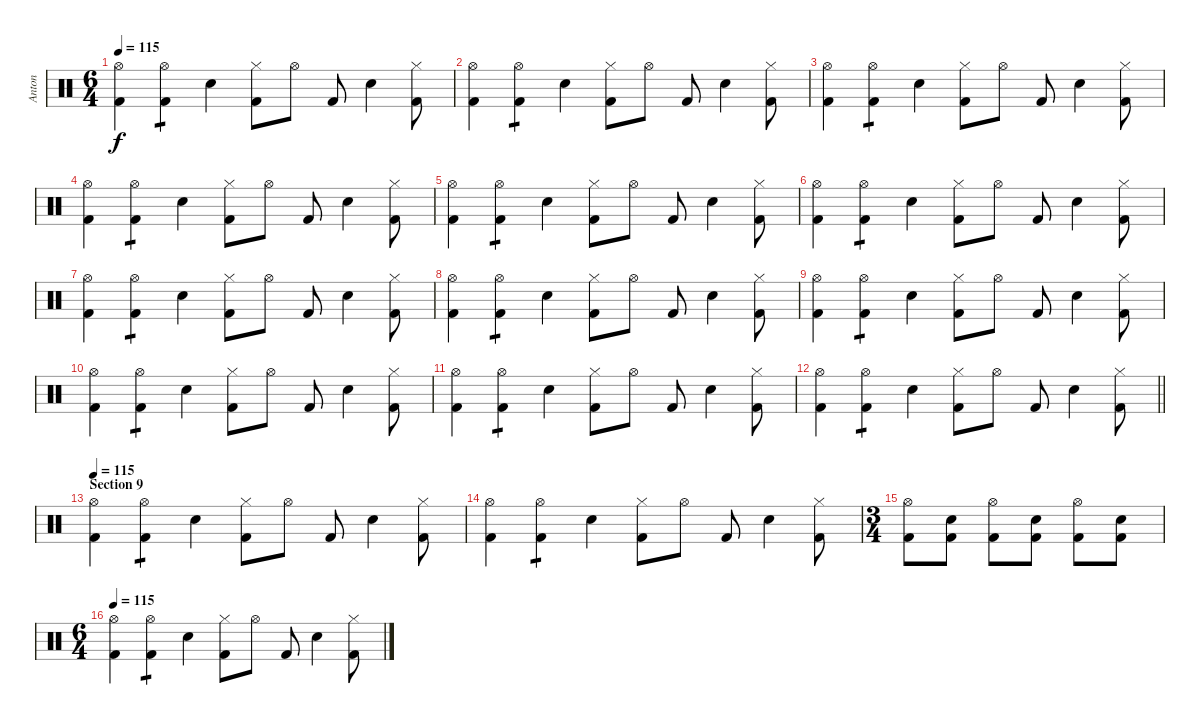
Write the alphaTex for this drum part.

\track ("Anton" "Anton") {instrument percussion}
\staff {score}
\articulation defaults
\ts (6 4)
\tempo 115
\clef neutral
\ks c
("Hi-Hat (open)" "Kick (hit) 2").4{dy f} ("Hi-Hat (open)" "Kick (hit) 2").4{tp 1} "Electric Snare (hit)".4 ("Hi-Hat (closed)" "Kick (hit) 2").8 "Hi-Hat (open)".8 "Kick (hit) 2".8 "Electric Snare (hit)".4 ("Hi-Hat (closed)" "Kick (hit) 2").8 |
("Hi-Hat (open)" "Kick (hit) 2").4 ("Hi-Hat (open)" "Kick (hit) 2").4{tp 1} "Electric Snare (hit)".4 ("Hi-Hat (closed)" "Kick (hit) 2").8 "Hi-Hat (open)".8 "Kick (hit) 2".8 "Electric Snare (hit)".4 ("Hi-Hat (closed)" "Kick (hit) 2").8 |
("Hi-Hat (open)" "Kick (hit) 2").4 ("Hi-Hat (open)" "Kick (hit) 2").4{tp 1} "Electric Snare (hit)".4 ("Hi-Hat (closed)" "Kick (hit) 2").8 "Hi-Hat (open)".8 "Kick (hit) 2".8 "Electric Snare (hit)".4 ("Hi-Hat (closed)" "Kick (hit) 2").8 |
("Hi-Hat (open)" "Kick (hit) 2").4 ("Hi-Hat (open)" "Kick (hit) 2").4{tp 1} "Electric Snare (hit)".4 ("Hi-Hat (closed)" "Kick (hit) 2").8 "Hi-Hat (open)".8 "Kick (hit) 2".8 "Electric Snare (hit)".4 ("Hi-Hat (closed)" "Kick (hit) 2").8 |
("Hi-Hat (open)" "Kick (hit) 2").4 ("Hi-Hat (open)" "Kick (hit) 2").4{tp 1} "Electric Snare (hit)".4 ("Hi-Hat (closed)" "Kick (hit) 2").8 "Hi-Hat (open)".8 "Kick (hit) 2".8 "Electric Snare (hit)".4 ("Hi-Hat (closed)" "Kick (hit) 2").8 |
("Hi-Hat (open)" "Kick (hit) 2").4 ("Hi-Hat (open)" "Kick (hit) 2").4{tp 1} "Electric Snare (hit)".4 ("Hi-Hat (closed)" "Kick (hit) 2").8 "Hi-Hat (open)".8 "Kick (hit) 2".8 "Electric Snare (hit)".4 ("Hi-Hat (closed)" "Kick (hit) 2").8 |
("Hi-Hat (open)" "Kick (hit) 2").4 ("Hi-Hat (open)" "Kick (hit) 2").4{tp 1} "Electric Snare (hit)".4 ("Hi-Hat (closed)" "Kick (hit) 2").8 "Hi-Hat (open)".8 "Kick (hit) 2".8 "Electric Snare (hit)".4 ("Hi-Hat (closed)" "Kick (hit) 2").8 |
("Hi-Hat (open)" "Kick (hit) 2").4 ("Hi-Hat (open)" "Kick (hit) 2").4{tp 1} "Electric Snare (hit)".4 ("Hi-Hat (closed)" "Kick (hit) 2").8 "Hi-Hat (open)".8 "Kick (hit) 2".8 "Electric Snare (hit)".4 ("Hi-Hat (closed)" "Kick (hit) 2").8 |
("Hi-Hat (open)" "Kick (hit) 2").4 ("Hi-Hat (open)" "Kick (hit) 2").4{tp 1} "Electric Snare (hit)".4 ("Hi-Hat (closed)" "Kick (hit) 2").8 "Hi-Hat (open)".8 "Kick (hit) 2".8 "Electric Snare (hit)".4 ("Hi-Hat (closed)" "Kick (hit) 2").8 |
("Hi-Hat (open)" "Kick (hit) 2").4 ("Hi-Hat (open)" "Kick (hit) 2").4{tp 1} "Electric Snare (hit)".4 ("Hi-Hat (closed)" "Kick (hit) 2").8 "Hi-Hat (open)".8 "Kick (hit) 2".8 "Electric Snare (hit)".4 ("Hi-Hat (closed)" "Kick (hit) 2").8 |
("Hi-Hat (open)" "Kick (hit) 2").4 ("Hi-Hat (open)" "Kick (hit) 2").4{tp 1} "Electric Snare (hit)".4 ("Hi-Hat (closed)" "Kick (hit) 2").8 "Hi-Hat (open)".8 "Kick (hit) 2".8 "Electric Snare (hit)".4 ("Hi-Hat (closed)" "Kick (hit) 2").8 |
\barLineRight lightlight
("Hi-Hat (open)" "Kick (hit) 2").4 ("Hi-Hat (open)" "Kick (hit) 2").4{tp 1} "Electric Snare (hit)".4 ("Hi-Hat (closed)" "Kick (hit) 2").8 "Hi-Hat (open)".8 "Kick (hit) 2".8 "Electric Snare (hit)".4 ("Hi-Hat (closed)" "Kick (hit) 2").8 |
\section ("" "Section 9")
\tempo 115
("Hi-Hat (open)" "Kick (hit) 2").4 ("Hi-Hat (open)" "Kick (hit) 2").4{tp 1} "Electric Snare (hit)".4 ("Hi-Hat (closed)" "Kick (hit) 2").8 "Hi-Hat (open)".8 "Kick (hit) 2".8 "Electric Snare (hit)".4 ("Hi-Hat (closed)" "Kick (hit) 2").8 |
("Hi-Hat (open)" "Kick (hit) 2").4 ("Hi-Hat (open)" "Kick (hit) 2").4{tp 1} "Electric Snare (hit)".4 ("Hi-Hat (closed)" "Kick (hit) 2").8 "Hi-Hat (open)".8 "Kick (hit) 2".8 "Electric Snare (hit)".4 ("Hi-Hat (closed)" "Kick (hit) 2").8 |
\ts (3 4)
("Hi-Hat (open)" "Kick (hit) 2").8 ("Electric Snare (hit)" "Kick (hit) 2").8 ("Hi-Hat (open)" "Kick (hit) 2").8 ("Electric Snare (hit)" "Kick (hit) 2").8 ("Hi-Hat (open)" "Kick (hit) 2").8 ("Electric Snare (hit)" "Kick (hit) 2").8 |
\ts (6 4)
\tempo 115
("Hi-Hat (open)" "Kick (hit) 2").4 ("Hi-Hat (open)" "Kick (hit) 2").4{tp 1} "Electric Snare (hit)".4 ("Hi-Hat (closed)" "Kick (hit) 2").8 "Hi-Hat (open)".8 "Kick (hit) 2".8 "Electric Snare (hit)".4 ("Hi-Hat (closed)" "Kick (hit) 2").8
